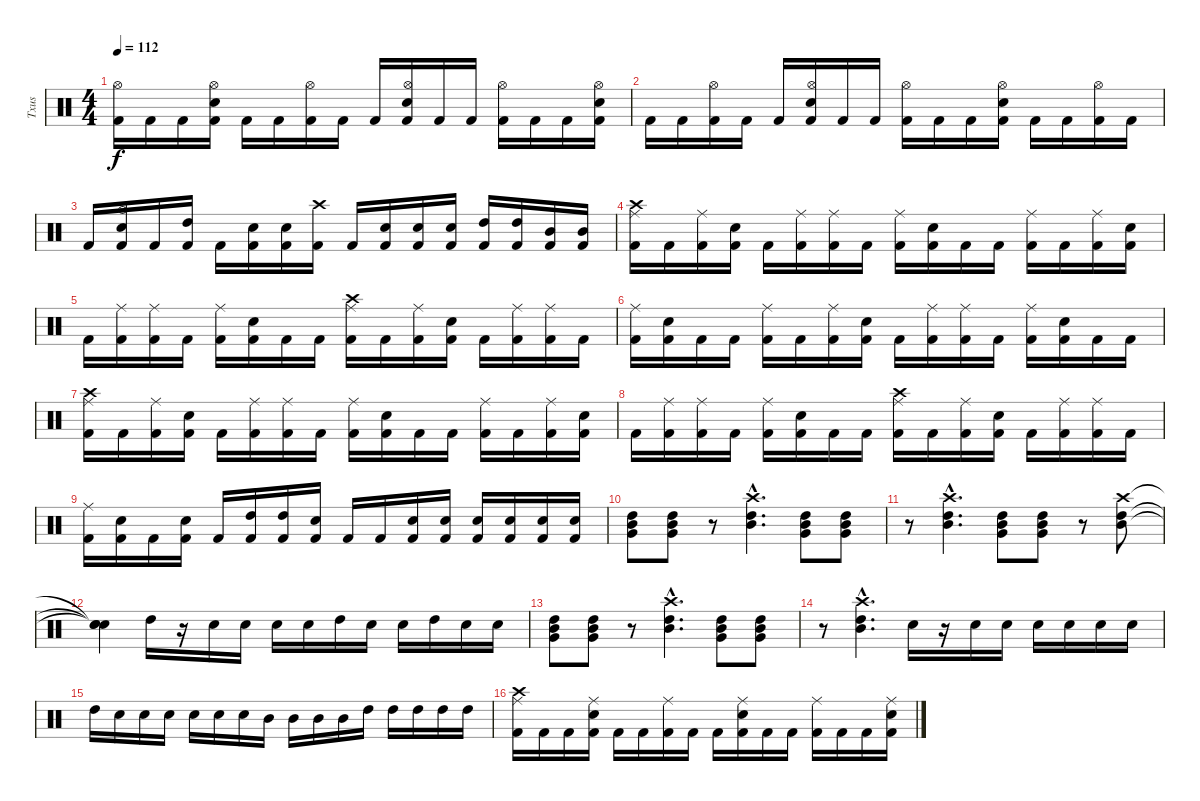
\track ("Txus" "Txus") {instrument percussion}
\staff {score}
\articulation defaults
\ts (4 4)
\tempo 112
\clef neutral
\ks c
("Kick (hit) 2" "Hi-Hat (open)").16{dy f} "Kick (hit) 2".16 "Kick (hit) 2".16 ("Kick (hit) 2" "Hi-Hat (open)" "Electric Snare (hit)").16 "Kick (hit) 2".16 "Kick (hit) 2".16 ("Kick (hit) 2" "Hi-Hat (open)").16 "Kick (hit) 2".16 "Kick (hit) 2".16 ("Kick (hit) 2" "Hi-Hat (open)" "Electric Snare (hit)").16 "Kick (hit) 2".16 "Kick (hit) 2".16 ("Kick (hit) 2" "Hi-Hat (open)").16 "Kick (hit) 2".16 "Kick (hit) 2".16 ("Kick (hit) 2" "Hi-Hat (open)" "Electric Snare (hit)").16 |
"Kick (hit) 2".16 "Kick (hit) 2".16 ("Kick (hit) 2" "Hi-Hat (open)").16 "Kick (hit) 2".16 "Kick (hit) 2".16 ("Kick (hit) 2" "Hi-Hat (open)" "Electric Snare (hit)").16 "Kick (hit) 2".16 "Kick (hit) 2".16 ("Kick (hit) 2" "Hi-Hat (open)").16 "Kick (hit) 2".16 "Kick (hit) 2".16 ("Kick (hit) 2" "Hi-Hat (open)" "Electric Snare (hit)").16 "Kick (hit) 2".16 "Kick (hit) 2".16 ("Kick (hit) 2" "Hi-Hat (open)").16 "Kick (hit) 2".16 |
"Kick (hit) 2".16 ("Kick (hit) 2" "Hi-Hat (open)" "Electric Snare (hit)").16 "Kick (hit) 2".16 ("Kick (hit) 2" "High Tom (hit)").16 "Kick (hit) 2".16 ("Kick (hit) 2" "Electric Snare (hit)").16 ("Kick (hit) 2" "Electric Snare (hit)").16 ("Kick (hit) 2" "Crash high (hit)").16 "Kick (hit) 2".16 ("Kick (hit) 2" "Electric Snare (hit)").16 ("Kick (hit) 2" "Electric Snare (hit)").16 ("Kick (hit) 2" "Electric Snare (hit)").16 ("Kick (hit) 2" "High Tom (hit)").16 ("Kick (hit) 2" "High Tom (hit)").16 ("Kick (hit) 2" "Mid Tom (hit)").16 ("Kick (hit) 2" "Mid Tom (hit)").16 |
("Kick (hit) 2" "Ride (middle)" "Crash high (hit)").16 "Kick (hit) 2".16 ("Kick (hit) 2" "Ride (middle)").16 ("Kick (hit) 2" "Electric Snare (hit)").16 "Kick (hit) 2".16 ("Kick (hit) 2" "Ride (middle)").16 ("Kick (hit) 2" "Ride (middle)").16 "Kick (hit) 2".16 ("Kick (hit) 2" "Ride (middle)").16 ("Kick (hit) 2" "Electric Snare (hit)").16 "Kick (hit) 2".16 "Kick (hit) 2".16 ("Kick (hit) 2" "Ride (middle)").16 "Kick (hit) 2".16 ("Kick (hit) 2" "Ride (middle)").16 ("Kick (hit) 2" "Electric Snare (hit)").16 |
"Kick (hit) 2".16 ("Kick (hit) 2" "Ride (middle)").16 ("Kick (hit) 2" "Ride (middle)").16 "Kick (hit) 2".16 ("Kick (hit) 2" "Ride (middle)").16 ("Kick (hit) 2" "Electric Snare (hit)").16 "Kick (hit) 2".16 "Kick (hit) 2".16 ("Kick (hit) 2" "Ride (middle)" "Crash high (hit)").16 "Kick (hit) 2".16 ("Kick (hit) 2" "Ride (middle)").16 ("Kick (hit) 2" "Electric Snare (hit)").16 "Kick (hit) 2".16 ("Kick (hit) 2" "Ride (middle)").16 ("Kick (hit) 2" "Ride (middle)").16 "Kick (hit) 2".16 |
("Kick (hit) 2" "Ride (middle)").16 ("Kick (hit) 2" "Electric Snare (hit)").16 "Kick (hit) 2".16 "Kick (hit) 2".16 ("Kick (hit) 2" "Ride (middle)").16 "Kick (hit) 2".16 ("Kick (hit) 2" "Ride (middle)").16 ("Kick (hit) 2" "Electric Snare (hit)").16 "Kick (hit) 2".16 ("Kick (hit) 2" "Ride (middle)").16 ("Kick (hit) 2" "Ride (middle)").16 "Kick (hit) 2".16 ("Kick (hit) 2" "Ride (middle)").16 ("Kick (hit) 2" "Electric Snare (hit)").16 "Kick (hit) 2".16 "Kick (hit) 2".16 |
("Kick (hit) 2" "Ride (middle)" "Crash high (hit)").16 "Kick (hit) 2".16 ("Kick (hit) 2" "Ride (middle)").16 ("Kick (hit) 2" "Electric Snare (hit)").16 "Kick (hit) 2".16 ("Kick (hit) 2" "Ride (middle)").16 ("Kick (hit) 2" "Ride (middle)").16 "Kick (hit) 2".16 ("Kick (hit) 2" "Ride (middle)").16 ("Kick (hit) 2" "Electric Snare (hit)").16 "Kick (hit) 2".16 "Kick (hit) 2".16 ("Kick (hit) 2" "Ride (middle)").16 "Kick (hit) 2".16 ("Kick (hit) 2" "Ride (middle)").16 ("Kick (hit) 2" "Electric Snare (hit)").16 |
"Kick (hit) 2".16 ("Kick (hit) 2" "Ride (middle)").16 ("Kick (hit) 2" "Ride (middle)").16 "Kick (hit) 2".16 ("Kick (hit) 2" "Ride (middle)").16 ("Kick (hit) 2" "Electric Snare (hit)").16 "Kick (hit) 2".16 "Kick (hit) 2".16 ("Kick (hit) 2" "Ride (middle)" "Crash high (hit)").16 "Kick (hit) 2".16 ("Kick (hit) 2" "Ride (middle)").16 ("Kick (hit) 2" "Electric Snare (hit)").16 "Kick (hit) 2".16 ("Kick (hit) 2" "Ride (middle)").16 ("Kick (hit) 2" "Ride (middle)").16 "Kick (hit) 2".16 |
("Kick (hit) 2" "Ride (middle)").16 ("Kick (hit) 2" "Electric Snare (hit)").16 "Kick (hit) 2".16 ("Kick (hit) 2" "Electric Snare (hit)").16 "Kick (hit) 2".16 ("Kick (hit) 2" "High Tom (hit)").16 ("Kick (hit) 2" "High Tom (hit)").16 ("Kick (hit) 2" "Electric Snare (hit)").16 "Kick (hit) 2".16 "Kick (hit) 2".16 ("Kick (hit) 2" "Electric Snare (hit)").16 ("Kick (hit) 2" "Electric Snare (hit)").16 ("Kick (hit) 2" "Electric Snare (hit)").16 ("Kick (hit) 2" "Electric Snare (hit)").16 ("Kick (hit) 2" "Electric Snare (hit)").16 ("Kick (hit) 2" "Electric Snare (hit)").16 |
("High Tom (hit)" "Mid Tom (hit)" "Very Low Tom (hit)").8 ("High Tom (hit)" "Mid Tom (hit)" "Very Low Tom (hit)").8 r.8 ("High Tom (hit)"{hac} "Mid Tom (hit)"{hac} "Crash high (hit)"{hac}).4{d} ("High Tom (hit)" "Mid Tom (hit)" "Very Low Tom (hit)").8 ("High Tom (hit)" "Mid Tom (hit)" "Very Low Tom (hit)").8 |
r.8 ("Crash high (hit)"{hac} "High Tom (hit)"{hac} "Mid Tom (hit)"{hac}).4{d} ("High Tom (hit)" "Mid Tom (hit)" "Very Low Tom (hit)").8 ("High Tom (hit)" "Mid Tom (hit)" "Very Low Tom (hit)").8 r.8 ("Crash high (hit)" "High Tom (hit)" "Mid Tom (hit)").8 |
("Snare (hit)"{t} "Snare (hit)"{t} "Snare (hit)"{t}).4 "High Tom (hit)".16 r.16 "Electric Snare (hit)".16 "Electric Snare (hit)".16 "Electric Snare (hit)".16 "Electric Snare (hit)".16 "High Tom (hit)".16 "Electric Snare (hit)".16 "Electric Snare (hit)".16 "High Tom (hit)".16 "Electric Snare (hit)".16 "Electric Snare (hit)".16 |
("High Tom (hit)" "Mid Tom (hit)" "Very Low Tom (hit)").8 ("High Tom (hit)" "Mid Tom (hit)" "Very Low Tom (hit)").8 r.8 ("High Tom (hit)"{hac} "Mid Tom (hit)"{hac} "Crash high (hit)"{hac}).4{d} ("High Tom (hit)" "Mid Tom (hit)" "Very Low Tom (hit)").8 ("High Tom (hit)" "Mid Tom (hit)" "Very Low Tom (hit)").8 |
r.8 ("Crash high (hit)"{hac} "High Tom (hit)"{hac} "Mid Tom (hit)"{hac}).4{d} "Electric Snare (hit)".16 r.16 "Electric Snare (hit)".16 "Electric Snare (hit)".16 "Electric Snare (hit)".16 "Electric Snare (hit)".16 "Electric Snare (hit)".16 "Electric Snare (hit)".16 |
"High Tom (hit)".16 "Electric Snare (hit)".16 "Electric Snare (hit)".16 "Electric Snare (hit)".16 "Electric Snare (hit)".16 "Electric Snare (hit)".16 "Electric Snare (hit)".16 "Mid Tom (hit)".16 "Mid Tom (hit)".16 "Mid Tom (hit)".16 "Mid Tom (hit)".16 "High Tom (hit)".16 "High Tom (hit)".16 "High Tom (hit)".16 "High Tom (hit)".16 "High Tom (hit)".16 |
("Kick (hit) 2" "Ride (middle)" "Crash high (hit)").16 "Kick (hit) 2".16 "Kick (hit) 2".16 ("Kick (hit) 2" "Ride (middle)" "Electric Snare (hit)").16 "Kick (hit) 2".16 "Kick (hit) 2".16 ("Kick (hit) 2" "Ride (middle)").16 "Kick (hit) 2".16 "Kick (hit) 2".16 ("Kick (hit) 2" "Ride (middle)" "Electric Snare (hit)").16 "Kick (hit) 2".16 "Kick (hit) 2".16 ("Kick (hit) 2" "Ride (middle)").16 "Kick (hit) 2".16 "Kick (hit) 2".16 ("Kick (hit) 2" "Ride (middle)" "Electric Snare (hit)").16
